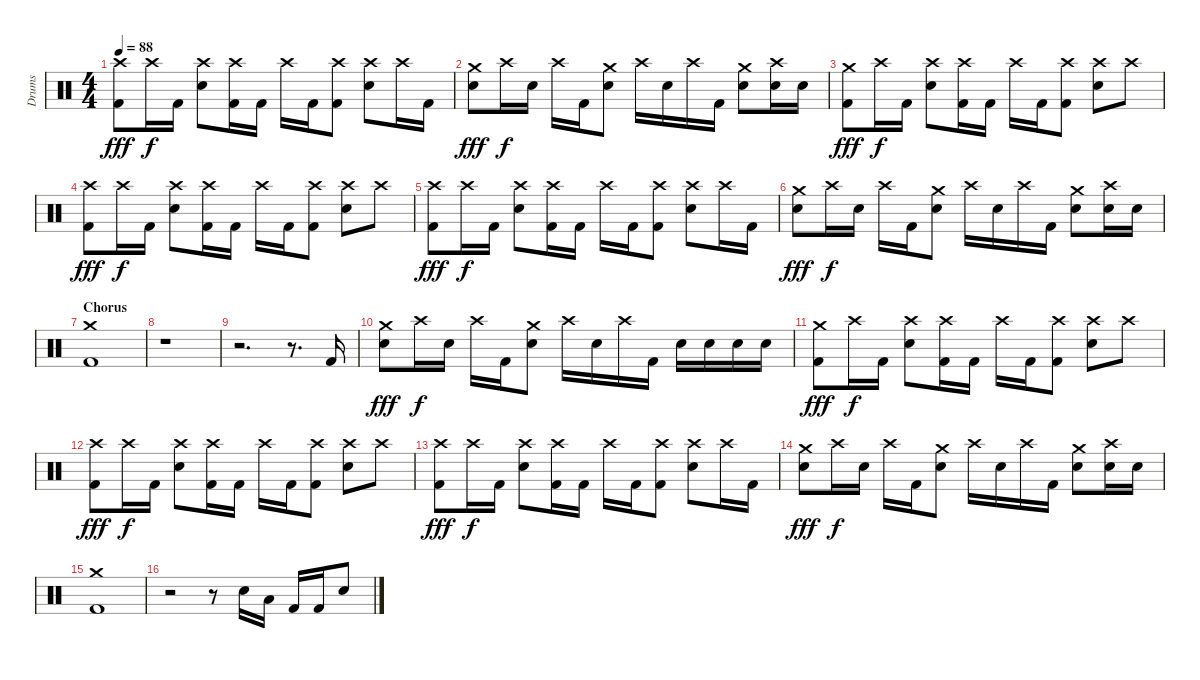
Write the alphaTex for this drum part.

\track ("Drums" "Drums") {instrument percussion}
\staff {score}
\articulation defaults
\ts (4 4)
\tempo 88
\clef neutral
\ks c
("Crash high (hit)" "Kick (hit) 2").8{dy fff} "Crash high (hit)".16{dy f} "Kick (hit) 2".16 ("Crash high (hit)" "Electric Snare (hit)").8 ("Crash high (hit)" "Kick (hit) 2").16 "Kick (hit) 2".16 "Crash high (hit)".16 "Kick (hit) 2".16 ("Crash high (hit)" "Kick (hit) 2").8 ("Crash high (hit)" "Electric Snare (hit)").8 "Crash high (hit)".16 "Kick (hit) 2".16 |
("Crash medium (hit)" "Electric Snare (hit)").8{dy fff} "Crash high (hit)".16{dy f} "Electric Snare (hit)".16 "Crash high (hit)".16 "Kick (hit) 2".16 ("Crash medium (hit)" "Electric Snare (hit)").8 "Crash high (hit)".16 "Electric Snare (hit)".16 "Crash high (hit)".16 "Kick (hit) 2".16 ("Crash medium (hit)" "Electric Snare (hit)").8 ("Crash high (hit)" "Electric Snare (hit)").16 "Electric Snare (hit)".16 |
("Crash medium (hit)" "Kick (hit) 2").8{dy fff} "Crash high (hit)".16{dy f} "Kick (hit) 2".16 ("Crash high (hit)" "Electric Snare (hit)").8 ("Crash high (hit)" "Kick (hit) 2").16 "Kick (hit) 2".16 "Crash high (hit)".16 "Kick (hit) 2".16 ("Crash high (hit)" "Kick (hit) 2").8 ("Crash high (hit)" "Electric Snare (hit)").8 "Crash high (hit)".8 |
("Crash high (hit)" "Kick (hit) 2").8{dy fff} "Crash high (hit)".16{dy f} "Kick (hit) 2".16 ("Crash high (hit)" "Electric Snare (hit)").8 ("Crash high (hit)" "Kick (hit) 2").16 "Kick (hit) 2".16 "Crash high (hit)".16 "Kick (hit) 2".16 ("Crash high (hit)" "Kick (hit) 2").8 ("Crash high (hit)" "Electric Snare (hit)").8 "Crash high (hit)".8 |
("Crash high (hit)" "Kick (hit) 2").8{dy fff} "Crash high (hit)".16{dy f} "Kick (hit) 2".16 ("Crash high (hit)" "Electric Snare (hit)").8 ("Crash high (hit)" "Kick (hit) 2").16 "Kick (hit) 2".16 "Crash high (hit)".16 "Kick (hit) 2".16 ("Crash high (hit)" "Kick (hit) 2").8 ("Crash high (hit)" "Electric Snare (hit)").8 "Crash high (hit)".16 "Kick (hit) 2".16 |
("Crash medium (hit)" "Electric Snare (hit)").8{dy fff} "Crash high (hit)".16{dy f} "Electric Snare (hit)".16 "Crash high (hit)".16 "Kick (hit) 2".16 ("Crash medium (hit)" "Electric Snare (hit)").8 "Crash high (hit)".16 "Electric Snare (hit)".16 "Crash high (hit)".16 "Kick (hit) 2".16 ("Crash medium (hit)" "Electric Snare (hit)").8 ("Crash high (hit)" "Electric Snare (hit)").16 "Electric Snare (hit)".16 |
\section ("" "Chorus")
("Crash medium (hit)" "Kick (hit) 2").1 |
r.1 |
r.2{d} r.8{d} "Kick (hit) 2".16 |
("Crash medium (hit)" "Electric Snare (hit)").8{dy fff} "Crash high (hit)".16{dy f} "Electric Snare (hit)".16 "Crash high (hit)".16 "Kick (hit) 2".16 ("Crash medium (hit)" "Electric Snare (hit)").8 "Crash high (hit)".16 "Electric Snare (hit)".16 "Crash high (hit)".16 "Kick (hit) 2".16 "Electric Snare (hit)".16 "Electric Snare (hit)".16 "Electric Snare (hit)".16 "Electric Snare (hit)".16 |
("Crash medium (hit)" "Kick (hit) 2").8{dy fff} "Crash high (hit)".16{dy f} "Kick (hit) 2".16 ("Crash high (hit)" "Electric Snare (hit)").8 ("Crash high (hit)" "Kick (hit) 2").16 "Kick (hit) 2".16 "Crash high (hit)".16 "Kick (hit) 2".16 ("Crash high (hit)" "Kick (hit) 2").8 ("Crash high (hit)" "Electric Snare (hit)").8 "Crash high (hit)".8 |
("Crash high (hit)" "Kick (hit) 2").8{dy fff} "Crash high (hit)".16{dy f} "Kick (hit) 2".16 ("Crash high (hit)" "Electric Snare (hit)").8 ("Crash high (hit)" "Kick (hit) 2").16 "Kick (hit) 2".16 "Crash high (hit)".16 "Kick (hit) 2".16 ("Crash high (hit)" "Kick (hit) 2").8 ("Crash high (hit)" "Electric Snare (hit)").8 "Crash high (hit)".8 |
("Crash high (hit)" "Kick (hit) 2").8{dy fff} "Crash high (hit)".16{dy f} "Kick (hit) 2".16 ("Crash high (hit)" "Electric Snare (hit)").8 ("Crash high (hit)" "Kick (hit) 2").16 "Kick (hit) 2".16 "Crash high (hit)".16 "Kick (hit) 2".16 ("Crash high (hit)" "Kick (hit) 2").8 ("Crash high (hit)" "Electric Snare (hit)").8 "Crash high (hit)".16 "Kick (hit) 2".16 |
("Crash medium (hit)" "Electric Snare (hit)").8{dy fff} "Crash high (hit)".16{dy f} "Electric Snare (hit)".16 "Crash high (hit)".16 "Kick (hit) 2".16 ("Crash medium (hit)" "Electric Snare (hit)").8 "Crash high (hit)".16 "Electric Snare (hit)".16 "Crash high (hit)".16 "Kick (hit) 2".16 ("Crash medium (hit)" "Electric Snare (hit)").8 ("Crash high (hit)" "Electric Snare (hit)").16 "Electric Snare (hit)".16 |
("Crash medium (hit)" "Kick (hit) 2").1 |
r.2 r.8 "Electric Snare (hit)".16 "Low Floor Tom (hit)".16 "Kick (hit) 2".16 "Kick (hit) 2".16 "Electric Snare (hit)".8
